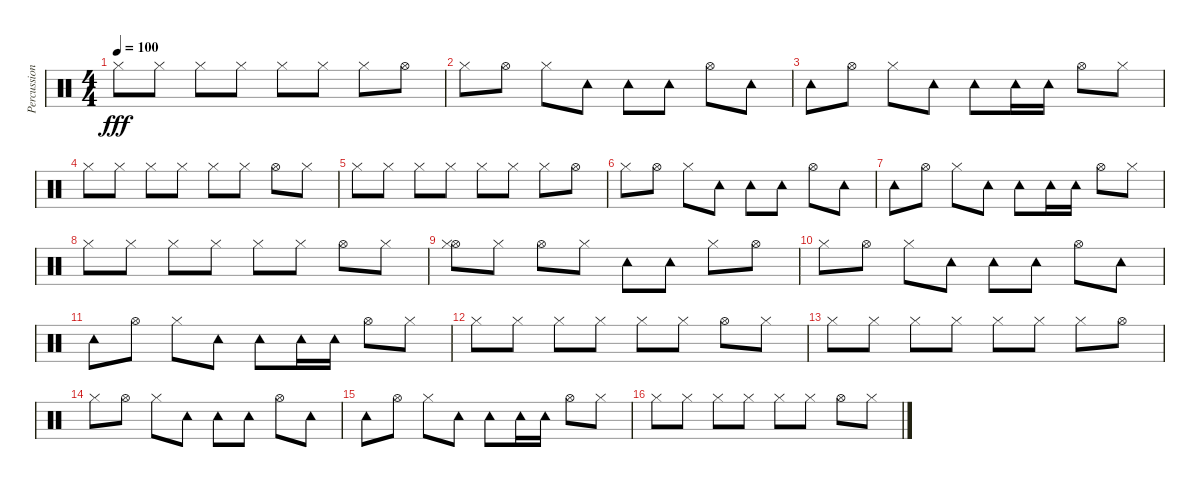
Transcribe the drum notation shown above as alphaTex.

\track ("Percussion" "Percussion") {instrument percussion}
\staff {score}
\articulation defaults
\ts (4 4)
\tempo 100
\clef neutral
\ks c "Hi-Hat (closed)".8{dy fff} "Hi-Hat (closed)".8 "Hi-Hat (closed)".8 "Hi-Hat (closed)".8 "Hi-Hat (closed)".8 "Hi-Hat (closed)".8 "Hi-Hat (closed)".8 "Hi-Hat (open)".8
|
"Hi-Hat (closed)".8 "Hi-Hat (open)".8 "Hi-Hat (closed)".8 "Tambourine (hit)".8 "Tambourine (hit)".8 "Tambourine (hit)".8 "Hi-Hat (open)".8 "Tambourine (hit)".8 |
"Tambourine (hit)".8 "Hi-Hat (open)".8 "Hi-Hat (closed)".8 "Tambourine (hit)".8 "Tambourine (hit)".8 "Tambourine (hit)".16 "Tambourine (hit)".16 "Hi-Hat (open)".8 "Hi-Hat (closed)".8 |
"Hi-Hat (closed)".8 "Hi-Hat (closed)".8 "Hi-Hat (closed)".8 "Hi-Hat (closed)".8 "Hi-Hat (closed)".8 "Hi-Hat (closed)".8 "Hi-Hat (open)".8 "Hi-Hat (closed)".8 |
"Hi-Hat (closed)".8 "Hi-Hat (closed)".8 "Hi-Hat (closed)".8 "Hi-Hat (closed)".8 "Hi-Hat (closed)".8 "Hi-Hat (closed)".8 "Hi-Hat (closed)".8 "Hi-Hat (open)".8 |
"Hi-Hat (closed)".8 "Hi-Hat (open)".8 "Hi-Hat (closed)".8 "Tambourine (hit)".8 "Tambourine (hit)".8 "Tambourine (hit)".8 "Hi-Hat (open)".8 "Tambourine (hit)".8 |
"Tambourine (hit)".8 "Hi-Hat (open)".8 "Hi-Hat (closed)".8 "Tambourine (hit)".8 "Tambourine (hit)".8 "Tambourine (hit)".16 "Tambourine (hit)".16 "Hi-Hat (open)".8 "Hi-Hat (closed)".8 |
"Hi-Hat (closed)".8 "Hi-Hat (closed)".8 "Hi-Hat (closed)".8 "Hi-Hat (closed)".8 "Hi-Hat (closed)".8 "Hi-Hat (closed)".8 "Hi-Hat (open)".8 "Hi-Hat (closed)".8 |
("Hi-Hat (open)" "Hi-Hat (closed)").8 "Hi-Hat (closed)".8 "Hi-Hat (open)".8 "Hi-Hat (closed)".8 "Tambourine (hit)".8 "Tambourine (hit)".8 "Hi-Hat (closed)".8 "Hi-Hat (open)".8 |
"Hi-Hat (closed)".8 "Hi-Hat (open)".8 "Hi-Hat (closed)".8 "Tambourine (hit)".8 "Tambourine (hit)".8 "Tambourine (hit)".8 "Hi-Hat (open)".8 "Tambourine (hit)".8 |
"Tambourine (hit)".8 "Hi-Hat (open)".8 "Hi-Hat (closed)".8 "Tambourine (hit)".8 "Tambourine (hit)".8 "Tambourine (hit)".16 "Tambourine (hit)".16 "Hi-Hat (open)".8 "Hi-Hat (closed)".8 |
"Hi-Hat (closed)".8 "Hi-Hat (closed)".8 "Hi-Hat (closed)".8 "Hi-Hat (closed)".8 "Hi-Hat (closed)".8 "Hi-Hat (closed)".8 "Hi-Hat (open)".8 "Hi-Hat (closed)".8 |
"Hi-Hat (closed)".8 "Hi-Hat (closed)".8 "Hi-Hat (closed)".8 "Hi-Hat (closed)".8 "Hi-Hat (closed)".8 "Hi-Hat (closed)".8 "Hi-Hat (closed)".8 "Hi-Hat (open)".8 |
"Hi-Hat (closed)".8 "Hi-Hat (open)".8 "Hi-Hat (closed)".8 "Tambourine (hit)".8 "Tambourine (hit)".8 "Tambourine (hit)".8 "Hi-Hat (open)".8 "Tambourine (hit)".8 |
"Tambourine (hit)".8 "Hi-Hat (open)".8 "Hi-Hat (closed)".8 "Tambourine (hit)".8 "Tambourine (hit)".8 "Tambourine (hit)".16 "Tambourine (hit)".16 "Hi-Hat (open)".8 "Hi-Hat (closed)".8 |
"Hi-Hat (closed)".8 "Hi-Hat (closed)".8 "Hi-Hat (closed)".8 "Hi-Hat (closed)".8 "Hi-Hat (closed)".8 "Hi-Hat (closed)".8 "Hi-Hat (open)".8 "Hi-Hat (closed)".8
